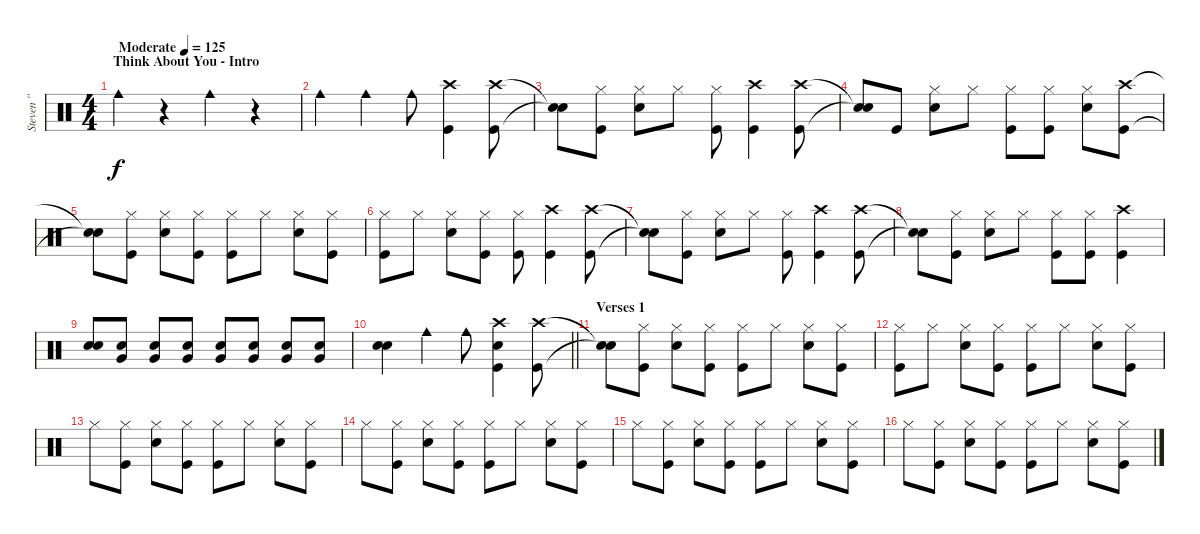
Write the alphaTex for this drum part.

\track ("Steven '' Popcorn '' Adler" "Steven '' ") {instrument percussion}
\staff {score}
\articulation defaults
\ts (4 4)
\section ("" "Think About You - Intro")
\tempo (125 "Moderate")
\tempo 170
\tempo (125 "Moderate")
\clef neutral
\ks c "Cowbell medium (hit)".4{dy f}
r.4 "Cowbell medium (hit)".4 r.4 |
"Cowbell medium (hit)".4 "Cowbell medium (hit)".4 "Cowbell medium (hit)".8 ("Crash high (hit)" "Kick (hit)").4 ("Crash high (hit)" "Kick (hit)").8 |
("Snare (hit)"{t} "Snare (hit)"{t}).8 ("Hi-Hat (closed)" "Kick (hit)").8 ("Hi-Hat (closed)" "Snare (hit) 2").8 "Hi-Hat (closed)".8 ("Hi-Hat (closed)" "Kick (hit)").8 ("Crash high (hit)" "Kick (hit)").4 ("Crash high (hit)" "Kick (hit)").8 |
("Snare (hit)"{t} "Snare (hit)"{t}).8 "Kick (hit)".8 ("Hi-Hat (closed)" "Snare (hit) 2").8 "Hi-Hat (closed)".8 ("Hi-Hat (closed)" "Kick (hit)").8 ("Hi-Hat (closed)" "Kick (hit)").8 ("Hi-Hat (closed)" "Snare (hit) 2").8 ("Crash high (hit)" "Kick (hit)").8 |
("Snare (hit)"{t} "Snare (hit)"{t}).8 ("Hi-Hat (closed)" "Kick (hit)").8 ("Hi-Hat (closed)" "Snare (hit) 2").8 ("Hi-Hat (closed)" "Kick (hit)").8 ("Hi-Hat (closed)" "Kick (hit)").8 "Hi-Hat (closed)".8 ("Hi-Hat (closed)" "Snare (hit) 2").8 ("Hi-Hat (closed)" "Kick (hit)").8 |
("Hi-Hat (closed)" "Kick (hit)").8 "Hi-Hat (closed)".8 ("Hi-Hat (closed)" "Snare (hit) 2").8 ("Hi-Hat (closed)" "Kick (hit)").8 ("Hi-Hat (closed)" "Kick (hit)").8 ("Crash high (hit)" "Kick (hit)").4 ("Crash high (hit)" "Kick (hit)").8 |
("Snare (hit)"{t} "Snare (hit)"{t}).8 ("Hi-Hat (closed)" "Kick (hit)").8 ("Hi-Hat (closed)" "Snare (hit) 2").8 "Hi-Hat (closed)".8 ("Hi-Hat (closed)" "Kick (hit)").8 ("Crash high (hit)" "Kick (hit)").4 ("Crash high (hit)" "Kick (hit)").8 |
("Snare (hit)"{t} "Snare (hit)"{t}).8 ("Hi-Hat (closed)" "Kick (hit)").8 ("Hi-Hat (closed)" "Snare (hit) 2").8 "Hi-Hat (closed)".8 ("Hi-Hat (closed)" "Kick (hit)").8 ("Hi-Hat (closed)" "Kick (hit)").8 ("Crash high (hit)" "Kick (hit)").4 |
("Snare (hit) 2" "Snare (hit) 2").8 ("Snare (hit) 2" "Very Low Tom (hit)").8 ("Snare (hit) 2" "Very Low Tom (hit)").8 ("Snare (hit) 2" "Very Low Tom (hit)").8 ("Snare (hit) 2" "Very Low Tom (hit)").8 ("Snare (hit) 2" "Very Low Tom (hit)").8 ("Snare (hit) 2" "Very Low Tom (hit)").8 ("Snare (hit) 2" "Very Low Tom (hit)").8 |
\barLineRight lightlight
("Snare (hit) 2" "Snare (hit) 2").4 "Cowbell medium (hit)".4 "Cowbell medium (hit)".8 ("Crash high (hit)" "Kick (hit)" "Snare (hit)").4 ("Crash high (hit)" "Kick (hit)").8 |
\section ("" "Verses 1")
("Snare (hit)"{t} "Snare (hit)"{t}).8 ("Hi-Hat (closed)" "Kick (hit)").8 ("Hi-Hat (closed)" "Snare (hit) 2").8 ("Hi-Hat (closed)" "Kick (hit)").8 ("Hi-Hat (closed)" "Kick (hit)").8 "Hi-Hat (closed)".8 ("Hi-Hat (closed)" "Snare (hit) 2").8 ("Hi-Hat (closed)" "Kick (hit)").8 |
("Hi-Hat (closed)" "Kick (hit)").8 "Hi-Hat (closed)".8 ("Hi-Hat (closed)" "Snare (hit) 2").8 ("Hi-Hat (closed)" "Kick (hit)").8 ("Hi-Hat (closed)" "Kick (hit)").8 "Hi-Hat (closed)".8 ("Hi-Hat (closed)" "Snare (hit) 2").8 ("Hi-Hat (closed)" "Kick (hit)").8 |
"Hi-Hat (closed)".8 ("Hi-Hat (closed)" "Kick (hit)").8 ("Hi-Hat (closed)" "Snare (hit) 2").8 ("Hi-Hat (closed)" "Kick (hit)").8 ("Hi-Hat (closed)" "Kick (hit)").8 "Hi-Hat (closed)".8 ("Hi-Hat (closed)" "Snare (hit) 2").8 ("Hi-Hat (closed)" "Kick (hit)").8 |
"Hi-Hat (closed)".8 ("Hi-Hat (closed)" "Kick (hit)").8 ("Hi-Hat (closed)" "Snare (hit) 2").8 ("Hi-Hat (closed)" "Kick (hit)").8 ("Hi-Hat (closed)" "Kick (hit)").8 "Hi-Hat (closed)".8 ("Hi-Hat (closed)" "Snare (hit) 2").8 ("Hi-Hat (closed)" "Kick (hit)").8 |
"Hi-Hat (closed)".8 ("Hi-Hat (closed)" "Kick (hit)").8 ("Hi-Hat (closed)" "Snare (hit) 2").8 ("Hi-Hat (closed)" "Kick (hit)").8 ("Hi-Hat (closed)" "Kick (hit)").8 "Hi-Hat (closed)".8 ("Hi-Hat (closed)" "Snare (hit) 2").8 ("Hi-Hat (closed)" "Kick (hit)").8 |
"Hi-Hat (closed)".8 ("Hi-Hat (closed)" "Kick (hit)").8 ("Hi-Hat (closed)" "Snare (hit) 2").8 ("Hi-Hat (closed)" "Kick (hit)").8 ("Hi-Hat (closed)" "Kick (hit)").8 "Hi-Hat (closed)".8 ("Hi-Hat (closed)" "Snare (hit) 2").8 ("Hi-Hat (closed)" "Kick (hit)").8
